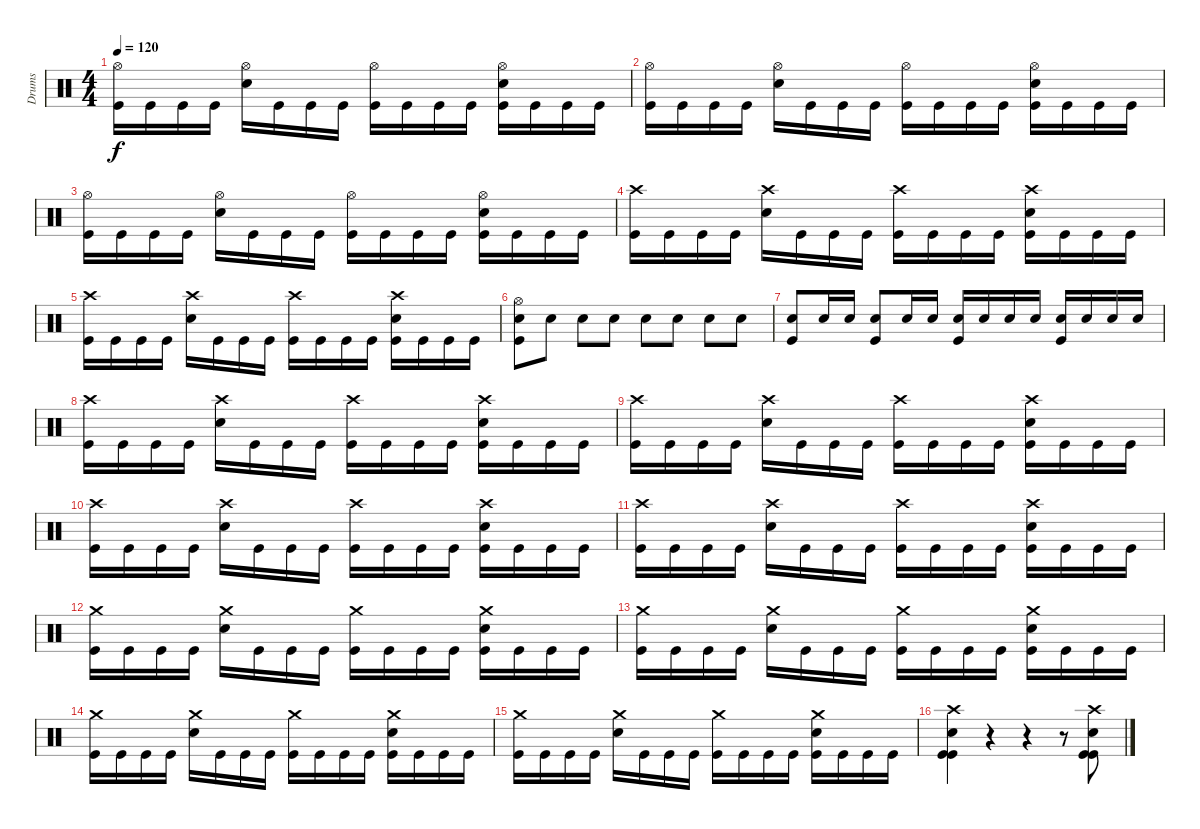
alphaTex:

\track ("Drums" "Drums") {instrument percussion}
\staff {score}
\articulation defaults
\ts (4 4)
\tempo 120
\clef neutral
\ks c
("Hi-Hat (open)" "Kick (hit)").16{dy f} "Kick (hit)".16 "Kick (hit)".16 "Kick (hit)".16 ("Hi-Hat (open)" "Snare (hit) 2").16 "Kick (hit)".16 "Kick (hit)".16 "Kick (hit)".16 ("Hi-Hat (open)" "Kick (hit)").16 "Kick (hit)".16 "Kick (hit)".16 "Kick (hit)".16 ("Hi-Hat (open)" "Snare (hit) 2" "Kick (hit)").16 "Kick (hit)".16 "Kick (hit)".16 "Kick (hit)".16 |
("Hi-Hat (open)" "Kick (hit)").16 "Kick (hit)".16 "Kick (hit)".16 "Kick (hit)".16 ("Hi-Hat (open)" "Snare (hit) 2").16 "Kick (hit)".16 "Kick (hit)".16 "Kick (hit)".16 ("Hi-Hat (open)" "Kick (hit)").16 "Kick (hit)".16 "Kick (hit)".16 "Kick (hit)".16 ("Hi-Hat (open)" "Snare (hit) 2" "Kick (hit)").16 "Kick (hit)".16 "Kick (hit)".16 "Kick (hit)".16 |
("Hi-Hat (open)" "Kick (hit)").16 "Kick (hit)".16 "Kick (hit)".16 "Kick (hit)".16 ("Hi-Hat (open)" "Snare (hit) 2").16 "Kick (hit)".16 "Kick (hit)".16 "Kick (hit)".16 ("Hi-Hat (open)" "Kick (hit)").16 "Kick (hit)".16 "Kick (hit)".16 "Kick (hit)".16 ("Hi-Hat (open)" "Snare (hit) 2" "Kick (hit)").16 "Kick (hit)".16 "Kick (hit)".16 "Kick (hit)".16 |
("Crash high (hit)" "Kick (hit)").16 "Kick (hit)".16 "Kick (hit)".16 "Kick (hit)".16 ("Crash high (hit)" "Snare (hit) 2").16 "Kick (hit)".16 "Kick (hit)".16 "Kick (hit)".16 ("Crash high (hit)" "Kick (hit)").16 "Kick (hit)".16 "Kick (hit)".16 "Kick (hit)".16 ("Crash high (hit)" "Snare (hit) 2" "Kick (hit)").16 "Kick (hit)".16 "Kick (hit)".16 "Kick (hit)".16 |
("Crash high (hit)" "Kick (hit)").16 "Kick (hit)".16 "Kick (hit)".16 "Kick (hit)".16 ("Crash high (hit)" "Snare (hit) 2").16 "Kick (hit)".16 "Kick (hit)".16 "Kick (hit)".16 ("Crash high (hit)" "Kick (hit)").16 "Kick (hit)".16 "Kick (hit)".16 "Kick (hit)".16 ("Crash high (hit)" "Snare (hit) 2" "Kick (hit)").16 "Kick (hit)".16 "Kick (hit)".16 "Kick (hit)".16 |
("Hi-Hat (open)" "Snare (hit) 2" "Kick (hit)").8 "Snare (hit) 2".8 "Snare (hit) 2".8 "Snare (hit) 2".8 "Snare (hit) 2".8 "Snare (hit) 2".8 "Snare (hit) 2".8 "Snare (hit) 2".8 |
("Snare (hit) 2" "Kick (hit)").8 "Snare (hit) 2".16 "Snare (hit) 2".16 ("Snare (hit) 2" "Kick (hit)").8 "Snare (hit) 2".16 "Snare (hit) 2".16 ("Snare (hit) 2" "Kick (hit)").16 "Snare (hit) 2".16 "Snare (hit) 2".16 "Snare (hit) 2".16 ("Snare (hit) 2" "Kick (hit)").16 "Snare (hit) 2".16 "Snare (hit) 2".16 "Snare (hit) 2".16 |
("Crash high (hit)" "Kick (hit)").16 "Kick (hit)".16 "Kick (hit)".16 "Kick (hit)".16 ("Crash high (hit)" "Snare (hit) 2").16 "Kick (hit)".16 "Kick (hit)".16 "Kick (hit)".16 ("Crash high (hit)" "Kick (hit)").16 "Kick (hit)".16 "Kick (hit)".16 "Kick (hit)".16 ("Crash high (hit)" "Snare (hit) 2" "Kick (hit)").16 "Kick (hit)".16 "Kick (hit)".16 "Kick (hit)".16 |
("Crash high (hit)" "Kick (hit)").16 "Kick (hit)".16 "Kick (hit)".16 "Kick (hit)".16 ("Crash high (hit)" "Snare (hit) 2").16 "Kick (hit)".16 "Kick (hit)".16 "Kick (hit)".16 ("Crash high (hit)" "Kick (hit)").16 "Kick (hit)".16 "Kick (hit)".16 "Kick (hit)".16 ("Crash high (hit)" "Snare (hit) 2" "Kick (hit)").16 "Kick (hit)".16 "Kick (hit)".16 "Kick (hit)".16 |
("Crash high (hit)" "Kick (hit)").16 "Kick (hit)".16 "Kick (hit)".16 "Kick (hit)".16 ("Crash high (hit)" "Snare (hit) 2").16 "Kick (hit)".16 "Kick (hit)".16 "Kick (hit)".16 ("Crash high (hit)" "Kick (hit)").16 "Kick (hit)".16 "Kick (hit)".16 "Kick (hit)".16 ("Crash high (hit)" "Snare (hit) 2" "Kick (hit)").16 "Kick (hit)".16 "Kick (hit)".16 "Kick (hit)".16 |
("Crash high (hit)" "Kick (hit)").16 "Kick (hit)".16 "Kick (hit)".16 "Kick (hit)".16 ("Crash high (hit)" "Snare (hit) 2").16 "Kick (hit)".16 "Kick (hit)".16 "Kick (hit)".16 ("Crash high (hit)" "Kick (hit)").16 "Kick (hit)".16 "Kick (hit)".16 "Kick (hit)".16 ("Crash high (hit)" "Snare (hit) 2" "Kick (hit)").16 "Kick (hit)".16 "Kick (hit)".16 "Kick (hit)".16 |
("Crash medium (hit)" "Kick (hit)").16 "Kick (hit)".16 "Kick (hit)".16 "Kick (hit)".16 ("Crash medium (hit)" "Snare (hit) 2").16 "Kick (hit)".16 "Kick (hit)".16 "Kick (hit)".16 ("Crash medium (hit)" "Kick (hit)").16 "Kick (hit)".16 "Kick (hit)".16 "Kick (hit)".16 ("Crash medium (hit)" "Snare (hit) 2" "Kick (hit)").16 "Kick (hit)".16 "Kick (hit)".16 "Kick (hit)".16 |
("Crash medium (hit)" "Kick (hit)").16 "Kick (hit)".16 "Kick (hit)".16 "Kick (hit)".16 ("Crash medium (hit)" "Snare (hit) 2").16 "Kick (hit)".16 "Kick (hit)".16 "Kick (hit)".16 ("Crash medium (hit)" "Kick (hit)").16 "Kick (hit)".16 "Kick (hit)".16 "Kick (hit)".16 ("Crash medium (hit)" "Snare (hit) 2" "Kick (hit)").16 "Kick (hit)".16 "Kick (hit)".16 "Kick (hit)".16 |
("Crash medium (hit)" "Kick (hit)").16 "Kick (hit)".16 "Kick (hit)".16 "Kick (hit)".16 ("Crash medium (hit)" "Snare (hit) 2").16 "Kick (hit)".16 "Kick (hit)".16 "Kick (hit)".16 ("Crash medium (hit)" "Kick (hit)").16 "Kick (hit)".16 "Kick (hit)".16 "Kick (hit)".16 ("Crash medium (hit)" "Snare (hit) 2" "Kick (hit)").16 "Kick (hit)".16 "Kick (hit)".16 "Kick (hit)".16 |
("Crash medium (hit)" "Kick (hit)").16 "Kick (hit)".16 "Kick (hit)".16 "Kick (hit)".16 ("Crash medium (hit)" "Snare (hit) 2").16 "Kick (hit)".16 "Kick (hit)".16 "Kick (hit)".16 ("Crash medium (hit)" "Kick (hit)").16 "Kick (hit)".16 "Kick (hit)".16 "Kick (hit)".16 ("Crash medium (hit)" "Snare (hit) 2" "Kick (hit)").16 "Kick (hit)".16 "Kick (hit)".16 "Kick (hit)".16 |
("Crash high (hit)" "Snare (hit) 2" "Kick (hit)" "Kick (hit)").4 r.4 r.4 r.8 ("Crash high (hit)" "Snare (hit) 2" "Kick (hit)" "Kick (hit)").8
